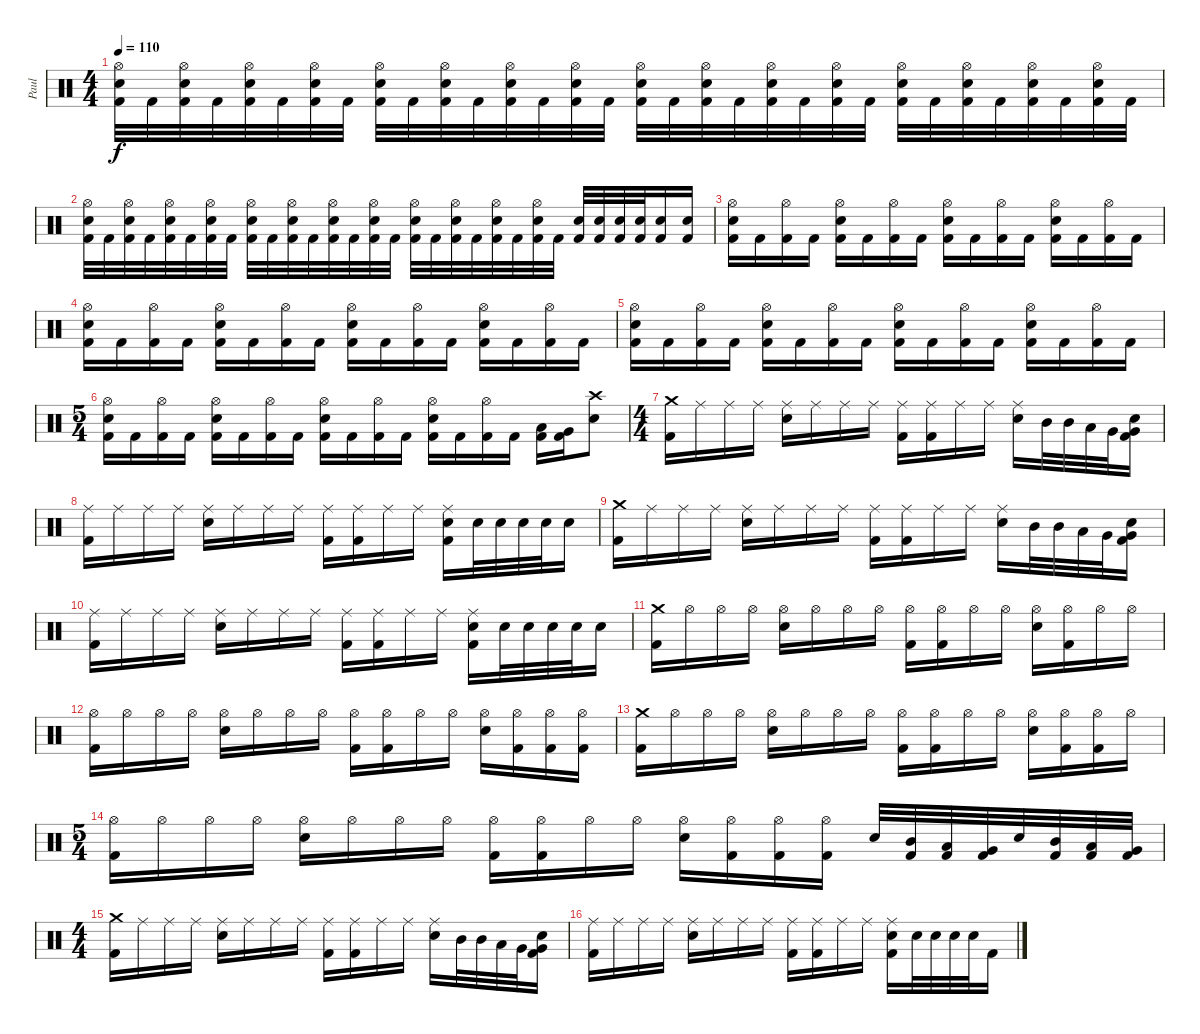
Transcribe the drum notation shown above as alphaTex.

\track ("Paul" "Paul") {solo instrument percussion}
\staff {score}
\articulation defaults
\ts (4 4)
\tempo 110
\clef neutral
\ks c
("Hi-Hat (open)" "Electric Snare (hit)" "Kick (hit) 2").32{dy f} "Kick (hit) 2".32 ("Hi-Hat (open)" "Electric Snare (hit)" "Kick (hit) 2").32 "Kick (hit) 2".32 ("Hi-Hat (open)" "Electric Snare (hit)" "Kick (hit) 2").32 "Kick (hit) 2".32 ("Hi-Hat (open)" "Electric Snare (hit)" "Kick (hit) 2").32 "Kick (hit) 2".32 ("Hi-Hat (open)" "Electric Snare (hit)" "Kick (hit) 2").32 "Kick (hit) 2".32 ("Hi-Hat (open)" "Electric Snare (hit)" "Kick (hit) 2").32 "Kick (hit) 2".32 ("Hi-Hat (open)" "Electric Snare (hit)" "Kick (hit) 2").32 "Kick (hit) 2".32 ("Hi-Hat (open)" "Electric Snare (hit)" "Kick (hit) 2").32 "Kick (hit) 2".32 ("Hi-Hat (open)" "Electric Snare (hit)" "Kick (hit) 2").32 "Kick (hit) 2".32 ("Hi-Hat (open)" "Electric Snare (hit)" "Kick (hit) 2").32 "Kick (hit) 2".32 ("Hi-Hat (open)" "Electric Snare (hit)" "Kick (hit) 2").32 "Kick (hit) 2".32 ("Hi-Hat (open)" "Electric Snare (hit)" "Kick (hit) 2").32 "Kick (hit) 2".32 ("Hi-Hat (open)" "Electric Snare (hit)" "Kick (hit) 2").32 "Kick (hit) 2".32 ("Hi-Hat (open)" "Electric Snare (hit)" "Kick (hit) 2").32 "Kick (hit) 2".32 ("Hi-Hat (open)" "Electric Snare (hit)" "Kick (hit) 2").32 "Kick (hit) 2".32 ("Hi-Hat (open)" "Electric Snare (hit)" "Kick (hit) 2").32 "Kick (hit) 2".32 |
("Hi-Hat (open)" "Electric Snare (hit)" "Kick (hit) 2").32 "Kick (hit) 2".32 ("Hi-Hat (open)" "Electric Snare (hit)" "Kick (hit) 2").32 "Kick (hit) 2".32 ("Hi-Hat (open)" "Electric Snare (hit)" "Kick (hit) 2").32 "Kick (hit) 2".32 ("Hi-Hat (open)" "Electric Snare (hit)" "Kick (hit) 2").32 "Kick (hit) 2".32 ("Hi-Hat (open)" "Electric Snare (hit)" "Kick (hit) 2").32 "Kick (hit) 2".32 ("Hi-Hat (open)" "Electric Snare (hit)" "Kick (hit) 2").32 "Kick (hit) 2".32 ("Hi-Hat (open)" "Electric Snare (hit)" "Kick (hit) 2").32 "Kick (hit) 2".32 ("Hi-Hat (open)" "Electric Snare (hit)" "Kick (hit) 2").32 "Kick (hit) 2".32 ("Hi-Hat (open)" "Electric Snare (hit)" "Kick (hit) 2").32 "Kick (hit) 2".32 ("Hi-Hat (open)" "Electric Snare (hit)" "Kick (hit) 2").32 "Kick (hit) 2".32 ("Hi-Hat (open)" "Electric Snare (hit)" "Kick (hit) 2").32 "Kick (hit) 2".32 ("Hi-Hat (open)" "Electric Snare (hit)" "Kick (hit) 2").32 "Kick (hit) 2".32 ("Electric Snare (hit)" "Kick (hit) 2").32 ("Electric Snare (hit)" "Kick (hit) 2").32 ("Electric Snare (hit)" "Kick (hit) 2").32 ("Electric Snare (hit)" "Kick (hit) 2").32 ("Electric Snare (hit)" "Kick (hit) 2").16 ("Electric Snare (hit)" "Kick (hit) 2").16 |
("Hi-Hat (open)" "Electric Snare (hit)" "Kick (hit) 2").16 "Kick (hit) 2".16 ("Hi-Hat (open)" "Kick (hit) 2").16 "Kick (hit) 2".16 ("Hi-Hat (open)" "Electric Snare (hit)" "Kick (hit) 2").16 "Kick (hit) 2".16 ("Hi-Hat (open)" "Kick (hit) 2").16 "Kick (hit) 2".16 ("Hi-Hat (open)" "Electric Snare (hit)" "Kick (hit) 2").16 "Kick (hit) 2".16 ("Hi-Hat (open)" "Kick (hit) 2").16 "Kick (hit) 2".16 ("Hi-Hat (open)" "Electric Snare (hit)" "Kick (hit) 2").16 "Kick (hit) 2".16 ("Hi-Hat (open)" "Kick (hit) 2").16 "Kick (hit) 2".16 |
("Hi-Hat (open)" "Electric Snare (hit)" "Kick (hit) 2").16 "Kick (hit) 2".16 ("Hi-Hat (open)" "Kick (hit) 2").16 "Kick (hit) 2".16 ("Hi-Hat (open)" "Electric Snare (hit)" "Kick (hit) 2").16 "Kick (hit) 2".16 ("Hi-Hat (open)" "Kick (hit) 2").16 "Kick (hit) 2".16 ("Hi-Hat (open)" "Electric Snare (hit)" "Kick (hit) 2").16 "Kick (hit) 2".16 ("Hi-Hat (open)" "Kick (hit) 2").16 "Kick (hit) 2".16 ("Hi-Hat (open)" "Electric Snare (hit)" "Kick (hit) 2").16 "Kick (hit) 2".16 ("Hi-Hat (open)" "Kick (hit) 2").16 "Kick (hit) 2".16 |
("Hi-Hat (open)" "Electric Snare (hit)" "Kick (hit) 2").16 "Kick (hit) 2".16 ("Hi-Hat (open)" "Kick (hit) 2").16 "Kick (hit) 2".16 ("Hi-Hat (open)" "Electric Snare (hit)" "Kick (hit) 2").16 "Kick (hit) 2".16 ("Hi-Hat (open)" "Kick (hit) 2").16 "Kick (hit) 2".16 ("Hi-Hat (open)" "Electric Snare (hit)" "Kick (hit) 2").16 "Kick (hit) 2".16 ("Hi-Hat (open)" "Kick (hit) 2").16 "Kick (hit) 2".16 ("Hi-Hat (open)" "Electric Snare (hit)" "Kick (hit) 2").16 "Kick (hit) 2".16 ("Hi-Hat (open)" "Kick (hit) 2").16 "Kick (hit) 2".16 |
\ts (5 4)
("Hi-Hat (open)" "Electric Snare (hit)" "Kick (hit) 2").16 "Kick (hit) 2".16 ("Hi-Hat (open)" "Kick (hit) 2").16 "Kick (hit) 2".16 ("Hi-Hat (open)" "Electric Snare (hit)" "Kick (hit) 2").16 "Kick (hit) 2".16 ("Hi-Hat (open)" "Kick (hit) 2").16 "Kick (hit) 2".16 ("Hi-Hat (open)" "Electric Snare (hit)" "Kick (hit) 2").16 "Kick (hit) 2".16 ("Hi-Hat (open)" "Kick (hit) 2").16 "Kick (hit) 2".16 ("Hi-Hat (open)" "Electric Snare (hit)" "Kick (hit) 2").16 "Kick (hit) 2".16 ("Hi-Hat (open)" "Kick (hit) 2").16 "Kick (hit) 2".16 ("Low Tom (hit)" "Kick (hit) 2").16 ("Very Low Tom (hit)" "Kick (hit) 2").16 ("Crash high (hit)" "Electric Snare (hit)").8 |
\ts (4 4)
("Crash medium (hit)" "Kick (hit) 2").16 "Ride (middle)".16 "Ride (middle)".16 "Ride (middle)".16 ("Ride (middle)" "Electric Snare (hit)").16 "Ride (middle)".16 "Ride (middle)".16 "Ride (middle)".16 ("Ride (middle)" "Kick (hit) 2").16 ("Ride (middle)" "Kick (hit) 2").16 "Ride (middle)".16 "Ride (middle)".16 ("Ride (middle)" "Electric Snare (hit)").16 "Mid Tom (hit)".32 "Mid Tom (hit)".32 "Low Tom (hit)".32 "Very Low Tom (hit)".32 ("Very Low Tom (hit)" "Electric Snare (hit)" "Kick (hit) 2").16 |
("Ride (middle)" "Kick (hit) 2").16 "Ride (middle)".16 "Ride (middle)".16 "Ride (middle)".16 ("Ride (middle)" "Electric Snare (hit)").16 "Ride (middle)".16 "Ride (middle)".16 "Ride (middle)".16 ("Ride (middle)" "Kick (hit) 2").16 ("Ride (middle)" "Kick (hit) 2").16 "Ride (middle)".16 "Ride (middle)".16 ("Ride (middle)" "Electric Snare (hit)" "Kick (hit) 2").16 "Electric Snare (hit)".32 "Electric Snare (hit)".32 "Electric Snare (hit)".32 "Electric Snare (hit)".32 "Electric Snare (hit)".16 |
("Crash medium (hit)" "Kick (hit) 2").16 "Ride (middle)".16 "Ride (middle)".16 "Ride (middle)".16 ("Ride (middle)" "Electric Snare (hit)").16 "Ride (middle)".16 "Ride (middle)".16 "Ride (middle)".16 ("Ride (middle)" "Kick (hit) 2").16 ("Ride (middle)" "Kick (hit) 2").16 "Ride (middle)".16 "Ride (middle)".16 ("Ride (middle)" "Electric Snare (hit)").16 "Mid Tom (hit)".32 "Mid Tom (hit)".32 "Low Tom (hit)".32 "Very Low Tom (hit)".32 ("Very Low Tom (hit)" "Electric Snare (hit)" "Kick (hit) 2").16 |
("Ride (middle)" "Kick (hit) 2").16 "Ride (middle)".16 "Ride (middle)".16 "Ride (middle)".16 ("Ride (middle)" "Electric Snare (hit)").16 "Ride (middle)".16 "Ride (middle)".16 "Ride (middle)".16 ("Ride (middle)" "Kick (hit) 2").16 ("Ride (middle)" "Kick (hit) 2").16 "Ride (middle)".16 "Ride (middle)".16 ("Ride (middle)" "Electric Snare (hit)" "Kick (hit) 2").16 "Electric Snare (hit)".32 "Electric Snare (hit)".32 "Electric Snare (hit)".32 "Electric Snare (hit)".32 "Electric Snare (hit)".16 |
("Crash medium (hit)" "Kick (hit) 2").16 "Hi-Hat (open)".16 "Hi-Hat (open)".16 "Hi-Hat (open)".16 ("Hi-Hat (open)" "Electric Snare (hit)").16 "Hi-Hat (open)".16 "Hi-Hat (open)".16 "Hi-Hat (open)".16 ("Hi-Hat (open)" "Kick (hit) 2").16 ("Hi-Hat (open)" "Kick (hit) 2").16 "Hi-Hat (open)".16 "Hi-Hat (open)".16 ("Hi-Hat (open)" "Electric Snare (hit)").16 ("Hi-Hat (open)" "Kick (hit) 2").16 "Hi-Hat (open)".16 "Hi-Hat (open)".16 |
("Hi-Hat (open)" "Kick (hit) 2").16 "Hi-Hat (open)".16 "Hi-Hat (open)".16 "Hi-Hat (open)".16 ("Hi-Hat (open)" "Electric Snare (hit)").16 "Hi-Hat (open)".16 "Hi-Hat (open)".16 "Hi-Hat (open)".16 ("Hi-Hat (open)" "Kick (hit) 2").16 ("Hi-Hat (open)" "Kick (hit) 2").16 "Hi-Hat (open)".16 "Hi-Hat (open)".16 ("Hi-Hat (open)" "Electric Snare (hit)").16 ("Hi-Hat (open)" "Kick (hit) 2").16 ("Hi-Hat (open)" "Kick (hit) 2").16 ("Hi-Hat (open)" "Kick (hit) 2").16 |
("Crash medium (hit)" "Kick (hit) 2").16 "Hi-Hat (open)".16 "Hi-Hat (open)".16 "Hi-Hat (open)".16 ("Hi-Hat (open)" "Electric Snare (hit)").16 "Hi-Hat (open)".16 "Hi-Hat (open)".16 "Hi-Hat (open)".16 ("Hi-Hat (open)" "Kick (hit) 2").16 ("Hi-Hat (open)" "Kick (hit) 2").16 "Hi-Hat (open)".16 "Hi-Hat (open)".16 ("Hi-Hat (open)" "Electric Snare (hit)").16 ("Hi-Hat (open)" "Kick (hit) 2").16 ("Hi-Hat (open)" "Kick (hit) 2").16 "Hi-Hat (open)".16 |
\ts (5 4)
("Hi-Hat (open)" "Kick (hit) 2").16 "Hi-Hat (open)".16 "Hi-Hat (open)".16 "Hi-Hat (open)".16 ("Hi-Hat (open)" "Electric Snare (hit)").16 "Hi-Hat (open)".16 "Hi-Hat (open)".16 "Hi-Hat (open)".16 ("Hi-Hat (open)" "Kick (hit) 2").16 ("Hi-Hat (open)" "Kick (hit) 2").16 "Hi-Hat (open)".16 "Hi-Hat (open)".16 ("Hi-Hat (open)" "Electric Snare (hit)").16 ("Hi-Hat (open)" "Kick (hit) 2").16 ("Hi-Hat (open)" "Kick (hit) 2").16 ("Hi-Hat (open)" "Kick (hit) 2").16 "Electric Snare (hit)".32 ("Mid Tom (hit)" "Kick (hit) 2").32 ("Low Tom (hit)" "Kick (hit) 2").32 ("Very Low Tom (hit)" "Kick (hit) 2").32 "Electric Snare (hit)".32 ("Mid Tom (hit)" "Kick (hit) 2").32 ("Low Tom (hit)" "Kick (hit) 2").32 ("Very Low Tom (hit)" "Kick (hit) 2").32 |
\ts (4 4)
("Crash medium (hit)" "Kick (hit) 2").16 "Ride (middle)".16 "Ride (middle)".16 "Ride (middle)".16 ("Ride (middle)" "Electric Snare (hit)").16 "Ride (middle)".16 "Ride (middle)".16 "Ride (middle)".16 ("Ride (middle)" "Kick (hit) 2").16 ("Ride (middle)" "Kick (hit) 2").16 "Ride (middle)".16 "Ride (middle)".16 ("Ride (middle)" "Electric Snare (hit)").16 "Mid Tom (hit)".32 "Mid Tom (hit)".32 "Low Tom (hit)".32 "Very Low Tom (hit)".32 ("Very Low Tom (hit)" "Electric Snare (hit)" "Kick (hit) 2").16 |
("Ride (middle)" "Kick (hit) 2").16 "Ride (middle)".16 "Ride (middle)".16 "Ride (middle)".16 ("Ride (middle)" "Electric Snare (hit)").16 "Ride (middle)".16 "Ride (middle)".16 "Ride (middle)".16 ("Ride (middle)" "Kick (hit) 2").16 ("Ride (middle)" "Kick (hit) 2").16 "Ride (middle)".16 "Ride (middle)".16 ("Ride (middle)" "Electric Snare (hit)" "Kick (hit) 2").16 "Electric Snare (hit)".32 "Electric Snare (hit)".32 "Electric Snare (hit)".32 "Electric Snare (hit)".32 "Kick (hit) 2".16
